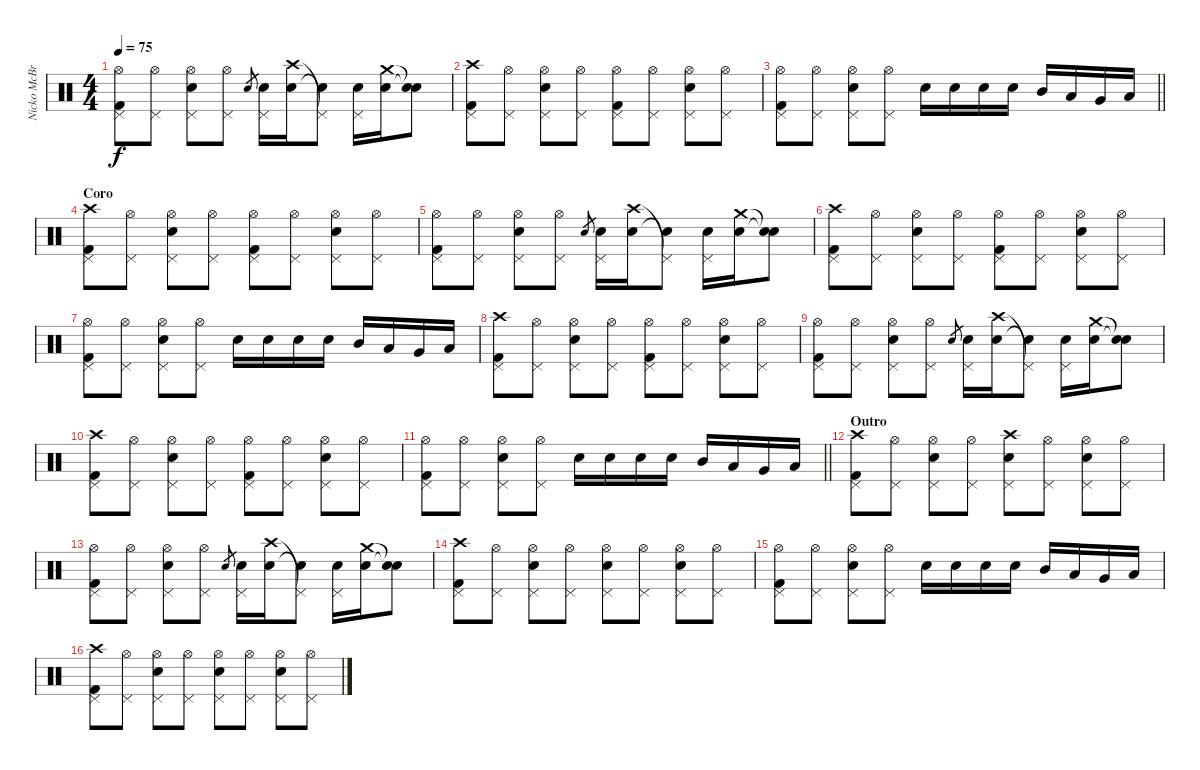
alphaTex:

\track ("Nicko McBrain" "Nicko McBr") {instrument percussion}
\staff {score}
\articulation defaults
\ts (4 4)
\tempo 75
\clef neutral
\ks c
("Kick (hit) 2" "Pedal Hi-Hat (hit)" "Hi-Hat (open)").8{dy f} ("Pedal Hi-Hat (hit)" "Hi-Hat (open)").8 ("Snare (hit) 2" "Pedal Hi-Hat (hit)" "Hi-Hat (open)").8 ("Pedal Hi-Hat (hit)" "Hi-Hat (open)").8 "Snare (hit) 2".8{gr} ("Snare (hit) 2" "Pedal Hi-Hat (hit)").16 ("Snare (hit) 2" "Crash high (hit)").16 ("Snare (hit) 2"{t} "Pedal Hi-Hat (hit)"{t}).8 ("Snare (hit) 2" "Pedal Hi-Hat (hit)").16 ("Snare (hit) 2" "Crash medium (hit)").16 ("Snare (hit)"{t} "Snare (hit)"{t}).8 |
("Kick (hit) 2" "Pedal Hi-Hat (hit)" "Crash high (hit)").8 ("Pedal Hi-Hat (hit)" "Hi-Hat (open)").8 ("Snare (hit) 2" "Pedal Hi-Hat (hit)" "Hi-Hat (open)").8 ("Pedal Hi-Hat (hit)" "Hi-Hat (open)").8 ("Kick (hit) 2" "Pedal Hi-Hat (hit)" "Hi-Hat (open)").8 ("Pedal Hi-Hat (hit)" "Hi-Hat (open)").8 ("Snare (hit) 2" "Pedal Hi-Hat (hit)" "Hi-Hat (open)").8 ("Pedal Hi-Hat (hit)" "Hi-Hat (open)").8 |
\barLineRight lightlight
("Kick (hit) 2" "Pedal Hi-Hat (hit)" "Hi-Hat (open)").8 ("Pedal Hi-Hat (hit)" "Hi-Hat (open)").8 ("Snare (hit) 2" "Pedal Hi-Hat (hit)" "Hi-Hat (open)").8 ("Pedal Hi-Hat (hit)" "Hi-Hat (open)").8 "Snare (hit) 2".16 "Snare (hit) 2".16 "Snare (hit) 2".16 "Snare (hit) 2".16 "Mid Tom (hit)".16 "Low Tom (hit)".16 "Very Low Tom (hit)".16 "Low Floor Tom (hit)".16 |
\section ("" "Coro")
("Kick (hit) 2" "Pedal Hi-Hat (hit)" "Crash high (hit)").8 ("Pedal Hi-Hat (hit)" "Hi-Hat (open)").8 ("Snare (hit) 2" "Pedal Hi-Hat (hit)" "Hi-Hat (open)").8 ("Pedal Hi-Hat (hit)" "Hi-Hat (open)").8 ("Kick (hit) 2" "Pedal Hi-Hat (hit)" "Hi-Hat (open)").8 ("Pedal Hi-Hat (hit)" "Hi-Hat (open)").8 ("Snare (hit) 2" "Pedal Hi-Hat (hit)" "Hi-Hat (open)").8 ("Pedal Hi-Hat (hit)" "Hi-Hat (open)").8 |
("Kick (hit) 2" "Pedal Hi-Hat (hit)" "Hi-Hat (open)").8 ("Pedal Hi-Hat (hit)" "Hi-Hat (open)").8 ("Snare (hit) 2" "Pedal Hi-Hat (hit)" "Hi-Hat (open)").8 ("Pedal Hi-Hat (hit)" "Hi-Hat (open)").8 "Snare (hit) 2".8{gr} ("Snare (hit) 2" "Pedal Hi-Hat (hit)").16 ("Snare (hit) 2" "Crash high (hit)").16 ("Snare (hit) 2"{t} "Pedal Hi-Hat (hit)"{t}).8 ("Snare (hit) 2" "Pedal Hi-Hat (hit)").16 ("Snare (hit) 2" "Crash medium (hit)").16 ("Snare (hit)"{t} "Snare (hit)"{t}).8 |
("Kick (hit) 2" "Pedal Hi-Hat (hit)" "Crash high (hit)").8 ("Pedal Hi-Hat (hit)" "Hi-Hat (open)").8 ("Snare (hit) 2" "Pedal Hi-Hat (hit)" "Hi-Hat (open)").8 ("Pedal Hi-Hat (hit)" "Hi-Hat (open)").8 ("Kick (hit) 2" "Pedal Hi-Hat (hit)" "Hi-Hat (open)").8 ("Pedal Hi-Hat (hit)" "Hi-Hat (open)").8 ("Snare (hit) 2" "Pedal Hi-Hat (hit)" "Hi-Hat (open)").8 ("Pedal Hi-Hat (hit)" "Hi-Hat (open)").8 |
("Kick (hit) 2" "Pedal Hi-Hat (hit)" "Hi-Hat (open)").8 ("Pedal Hi-Hat (hit)" "Hi-Hat (open)").8 ("Snare (hit) 2" "Pedal Hi-Hat (hit)" "Hi-Hat (open)").8 ("Pedal Hi-Hat (hit)" "Hi-Hat (open)").8 "Snare (hit) 2".16 "Snare (hit) 2".16 "Snare (hit) 2".16 "Snare (hit) 2".16 "Mid Tom (hit)".16 "Low Tom (hit)".16 "Very Low Tom (hit)".16 "Low Floor Tom (hit)".16 |
("Kick (hit) 2" "Pedal Hi-Hat (hit)" "Crash high (hit)").8 ("Pedal Hi-Hat (hit)" "Hi-Hat (open)").8 ("Snare (hit) 2" "Pedal Hi-Hat (hit)" "Hi-Hat (open)").8 ("Pedal Hi-Hat (hit)" "Hi-Hat (open)").8 ("Kick (hit) 2" "Pedal Hi-Hat (hit)" "Hi-Hat (open)").8 ("Pedal Hi-Hat (hit)" "Hi-Hat (open)").8 ("Snare (hit) 2" "Pedal Hi-Hat (hit)" "Hi-Hat (open)").8 ("Pedal Hi-Hat (hit)" "Hi-Hat (open)").8 |
("Kick (hit) 2" "Pedal Hi-Hat (hit)" "Hi-Hat (open)").8 ("Pedal Hi-Hat (hit)" "Hi-Hat (open)").8 ("Snare (hit) 2" "Pedal Hi-Hat (hit)" "Hi-Hat (open)").8 ("Pedal Hi-Hat (hit)" "Hi-Hat (open)").8 "Snare (hit) 2".8{gr} ("Snare (hit) 2" "Pedal Hi-Hat (hit)").16 ("Snare (hit) 2" "Crash high (hit)").16 ("Snare (hit) 2"{t} "Pedal Hi-Hat (hit)"{t}).8 ("Snare (hit) 2" "Pedal Hi-Hat (hit)").16 ("Snare (hit) 2" "Crash medium (hit)").16 ("Snare (hit)"{t} "Snare (hit)"{t}).8 |
("Kick (hit) 2" "Pedal Hi-Hat (hit)" "Crash high (hit)").8 ("Pedal Hi-Hat (hit)" "Hi-Hat (open)").8 ("Snare (hit) 2" "Pedal Hi-Hat (hit)" "Hi-Hat (open)").8 ("Pedal Hi-Hat (hit)" "Hi-Hat (open)").8 ("Kick (hit) 2" "Pedal Hi-Hat (hit)" "Hi-Hat (open)").8 ("Pedal Hi-Hat (hit)" "Hi-Hat (open)").8 ("Snare (hit) 2" "Pedal Hi-Hat (hit)" "Hi-Hat (open)").8 ("Pedal Hi-Hat (hit)" "Hi-Hat (open)").8 |
\barLineRight lightlight
("Kick (hit) 2" "Pedal Hi-Hat (hit)" "Hi-Hat (open)").8 ("Pedal Hi-Hat (hit)" "Hi-Hat (open)").8 ("Snare (hit) 2" "Pedal Hi-Hat (hit)" "Hi-Hat (open)").8 ("Pedal Hi-Hat (hit)" "Hi-Hat (open)").8 "Snare (hit) 2".16 "Snare (hit) 2".16 "Snare (hit) 2".16 "Snare (hit) 2".16 "Mid Tom (hit)".16 "Low Tom (hit)".16 "Very Low Tom (hit)".16 "Low Floor Tom (hit)".16 |
\section ("" "Outro")
("Kick (hit) 2" "Pedal Hi-Hat (hit)" "Crash high (hit)").8 ("Pedal Hi-Hat (hit)" "Hi-Hat (open)").8 ("Snare (hit) 2" "Pedal Hi-Hat (hit)" "Hi-Hat (open)").8 ("Pedal Hi-Hat (hit)" "Hi-Hat (open)").8 ("Snare (hit) 2" "Pedal Hi-Hat (hit)" "Crash high (hit)").8 ("Pedal Hi-Hat (hit)" "Hi-Hat (open)").8 ("Snare (hit) 2" "Pedal Hi-Hat (hit)" "Hi-Hat (open)").8 ("Pedal Hi-Hat (hit)" "Hi-Hat (open)").8 |
("Kick (hit) 2" "Pedal Hi-Hat (hit)" "Hi-Hat (open)").8 ("Pedal Hi-Hat (hit)" "Hi-Hat (open)").8 ("Snare (hit) 2" "Pedal Hi-Hat (hit)" "Hi-Hat (open)").8 ("Pedal Hi-Hat (hit)" "Hi-Hat (open)").8 "Snare (hit) 2".8{gr} ("Snare (hit) 2" "Pedal Hi-Hat (hit)").16 ("Snare (hit) 2" "Crash high (hit)").16 ("Snare (hit) 2"{t} "Pedal Hi-Hat (hit)"{t}).8 ("Snare (hit) 2" "Pedal Hi-Hat (hit)").16 ("Snare (hit) 2" "Crash medium (hit)").16 ("Snare (hit)"{t} "Snare (hit)"{t}).8 |
("Kick (hit) 2" "Pedal Hi-Hat (hit)" "Crash high (hit)").8 ("Pedal Hi-Hat (hit)" "Hi-Hat (open)").8 ("Snare (hit) 2" "Pedal Hi-Hat (hit)" "Hi-Hat (open)").8 ("Pedal Hi-Hat (hit)" "Hi-Hat (open)").8 ("Snare (hit) 2" "Pedal Hi-Hat (hit)" "Hi-Hat (open)").8 ("Pedal Hi-Hat (hit)" "Hi-Hat (open)").8 ("Snare (hit) 2" "Pedal Hi-Hat (hit)" "Hi-Hat (open)").8 ("Pedal Hi-Hat (hit)" "Hi-Hat (open)").8 |
("Kick (hit) 2" "Pedal Hi-Hat (hit)" "Hi-Hat (open)").8 ("Pedal Hi-Hat (hit)" "Hi-Hat (open)").8 ("Snare (hit) 2" "Pedal Hi-Hat (hit)" "Hi-Hat (open)").8 ("Pedal Hi-Hat (hit)" "Hi-Hat (open)").8 "Snare (hit) 2".16 "Snare (hit) 2".16 "Snare (hit) 2".16 "Snare (hit) 2".16 "Mid Tom (hit)".16 "Low Tom (hit)".16 "Very Low Tom (hit)".16 "Low Floor Tom (hit)".16 |
("Kick (hit) 2" "Pedal Hi-Hat (hit)" "Crash high (hit)").8 ("Pedal Hi-Hat (hit)" "Hi-Hat (open)").8 ("Snare (hit) 2" "Pedal Hi-Hat (hit)" "Hi-Hat (open)").8 ("Pedal Hi-Hat (hit)" "Hi-Hat (open)").8 ("Snare (hit) 2" "Pedal Hi-Hat (hit)" "Hi-Hat (open)").8 ("Pedal Hi-Hat (hit)" "Hi-Hat (open)").8 ("Snare (hit) 2" "Pedal Hi-Hat (hit)" "Hi-Hat (open)").8 ("Pedal Hi-Hat (hit)" "Hi-Hat (open)").8
